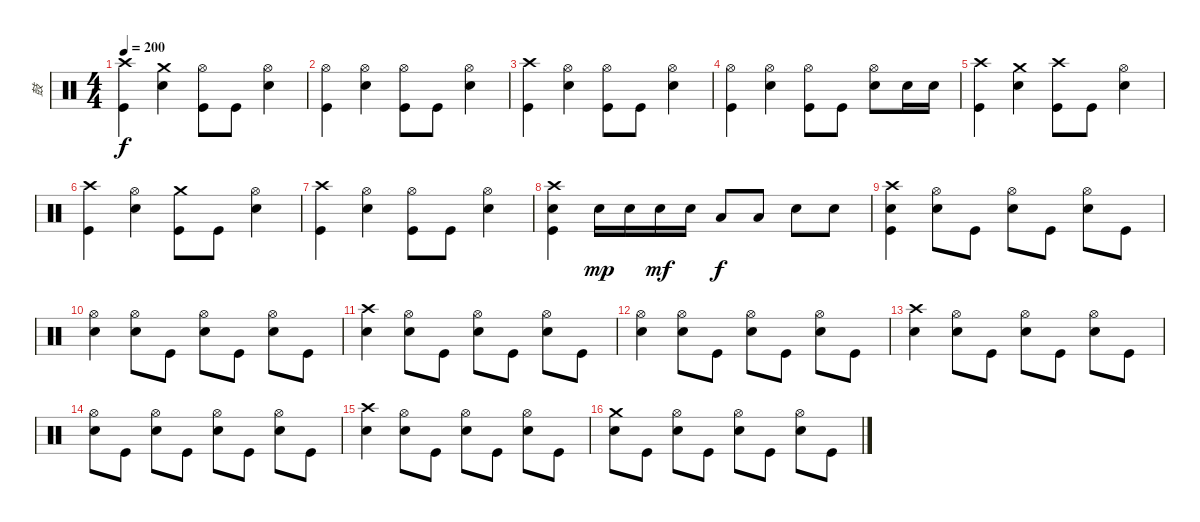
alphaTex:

\track ("鼓" "鼓") {instrument percussion}
\staff {score}
\articulation defaults
\ts (4 4)
\tempo 200
\clef neutral
\ks c
("Crash high (hit)" "Kick (hit)").4{dy f} ("Crash medium (hit)" "Snare (hit) 2").4 ("Hi-Hat (open)" "Kick (hit)").8 "Kick (hit)".8 ("Hi-Hat (open)" "Snare (hit) 2").4 |
("Hi-Hat (open)" "Kick (hit)").4 ("Hi-Hat (open)" "Snare (hit) 2").4 ("Hi-Hat (open)" "Kick (hit)").8 "Kick (hit)".8 ("Hi-Hat (open)" "Snare (hit) 2").4 |
("Crash high (hit)" "Kick (hit)").4 ("Hi-Hat (open)" "Snare (hit) 2").4 ("Hi-Hat (open)" "Kick (hit)").8 "Kick (hit)".8 ("Hi-Hat (open)" "Snare (hit) 2").4 |
("Hi-Hat (open)" "Kick (hit)").4 ("Hi-Hat (open)" "Snare (hit) 2").4 ("Hi-Hat (open)" "Kick (hit)").8 "Kick (hit)".8 ("Hi-Hat (open)" "Snare (hit) 2").8 "Snare (hit) 2".16 "Snare (hit) 2".16 |
("Crash high (hit)" "Kick (hit)").4 ("Crash medium (hit)" "Snare (hit) 2").4 ("Crash high (hit)" "Kick (hit)").8 "Kick (hit)".8 ("Hi-Hat (open)" "Snare (hit) 2").4 |
("Crash high (hit)" "Kick (hit)").4 ("Hi-Hat (open)" "Snare (hit) 2").4 ("Crash medium (hit)" "Kick (hit)").8 "Kick (hit)".8 ("Hi-Hat (open)" "Snare (hit) 2").4 |
("Crash high (hit)" "Kick (hit)").4 ("Hi-Hat (open)" "Snare (hit) 2").4 ("Hi-Hat (open)" "Kick (hit)").8 "Kick (hit)".8 ("Hi-Hat (open)" "Snare (hit) 2").4 |
("Crash high (hit)" "Snare (hit) 2" "Kick (hit)").4 "Snare (hit) 2".16{dy mp} "Snare (hit) 2".16 "Snare (hit) 2".16{dy mf} "Snare (hit) 2".16 "Low Tom (hit)".8{dy f} "Low Tom (hit)".8 "Snare (hit) 2".8 "Snare (hit) 2".8 |
("Crash high (hit)" "Snare (hit) 2" "Kick (hit)").4 ("Hi-Hat (open)" "Snare (hit) 2").8 "Kick (hit)".8 ("Hi-Hat (open)" "Snare (hit) 2").8 "Kick (hit)".8 ("Hi-Hat (open)" "Snare (hit) 2").8 "Kick (hit)".8 |
("Hi-Hat (open)" "Snare (hit) 2").4 ("Hi-Hat (open)" "Snare (hit) 2").8 "Kick (hit)".8 ("Hi-Hat (open)" "Snare (hit) 2").8 "Kick (hit)".8 ("Hi-Hat (open)" "Snare (hit) 2").8 "Kick (hit)".8 |
("Crash high (hit)" "Snare (hit) 2").4 ("Hi-Hat (open)" "Snare (hit) 2").8 "Kick (hit)".8 ("Hi-Hat (open)" "Snare (hit) 2").8 "Kick (hit)".8 ("Hi-Hat (open)" "Snare (hit) 2").8 "Kick (hit)".8 |
("Hi-Hat (open)" "Snare (hit) 2").4 ("Hi-Hat (open)" "Snare (hit) 2").8 "Kick (hit)".8 ("Hi-Hat (open)" "Snare (hit) 2").8 "Kick (hit)".8 ("Hi-Hat (open)" "Snare (hit) 2").8 "Kick (hit)".8 |
("Crash high (hit)" "Snare (hit) 2").4 ("Hi-Hat (open)" "Snare (hit) 2").8 "Kick (hit)".8 ("Hi-Hat (open)" "Snare (hit) 2").8 "Kick (hit)".8 ("Hi-Hat (open)" "Snare (hit) 2").8 "Kick (hit)".8 |
("Hi-Hat (open)" "Snare (hit) 2").8 "Kick (hit)".8 ("Hi-Hat (open)" "Snare (hit) 2").8 "Kick (hit)".8 ("Hi-Hat (open)" "Snare (hit) 2").8 "Kick (hit)".8 ("Hi-Hat (open)" "Snare (hit) 2").8 "Kick (hit)".8 |
("Crash high (hit)" "Snare (hit) 2").4 ("Hi-Hat (open)" "Snare (hit) 2").8 "Kick (hit)".8 ("Hi-Hat (open)" "Snare (hit) 2").8 "Kick (hit)".8 ("Hi-Hat (open)" "Snare (hit) 2").8 "Kick (hit)".8 |
("Crash medium (hit)" "Snare (hit) 2").8 "Kick (hit)".8 ("Hi-Hat (open)" "Snare (hit) 2").8 "Kick (hit)".8 ("Hi-Hat (open)" "Snare (hit) 2").8 "Kick (hit)".8 ("Hi-Hat (open)" "Snare (hit) 2").8 "Kick (hit)".8
